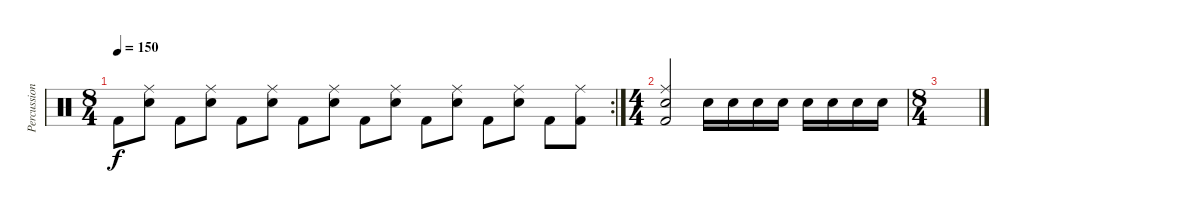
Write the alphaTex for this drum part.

\track ("Percussions" "Percussion") {instrument percussion}
\staff {score}
\articulation defaults
\rc 2
\ts (8 4)
\tempo 150
\clef neutral
\ks c "Kick (hit) 2".8{dy f}
("Ride (middle)" "Snare (hit) 2").8 "Kick (hit) 2".8 ("Ride (middle)" "Snare (hit) 2").8 "Kick (hit) 2".8 ("Ride (middle)" "Snare (hit) 2").8 "Kick (hit) 2".8 ("Ride (middle)" "Snare (hit) 2").8 "Kick (hit) 2".8 ("Ride (middle)" "Snare (hit) 2").8 "Kick (hit) 2".8 ("Ride (middle)" "Snare (hit) 2").8 "Kick (hit) 2".8 ("Ride (middle)" "Snare (hit) 2").8 "Kick (hit) 2".8 ("Ride (middle)" "Kick (hit) 2").8 |
\ts (4 4)
("Ride (middle)" "Snare (hit) 2" "Kick (hit) 2").2 "Snare (hit) 2".16 "Snare (hit) 2".16 "Snare (hit) 2".16 "Snare (hit) 2".16 "Snare (hit) 2".16 "Snare (hit) 2".16 "Snare (hit) 2".16 "Snare (hit) 2".16 |
\ts (8 4)
